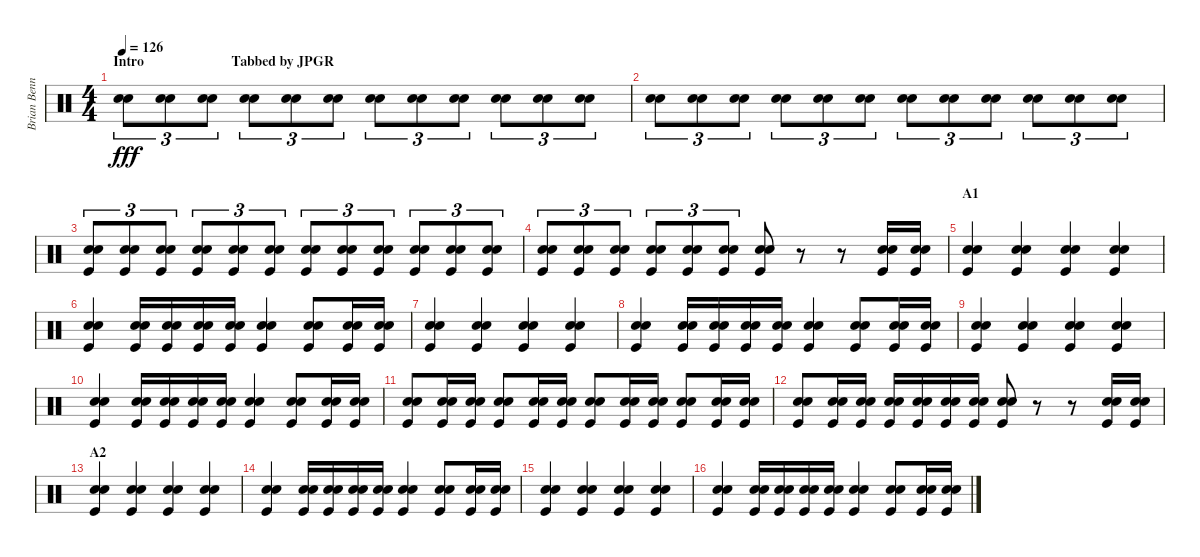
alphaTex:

\track ("Brian Bennett" "Brian Benn") {instrument percussion}
\staff {score}
\articulation defaults
\ts (4 4)
\section ("" "Intro                         Tabbed by JPGR")
\tempo 126
\clef neutral
\ks c
("Electric Snare (hit)" "Snare (hit) 2").8{tu (3 2) dy fff} ("Electric Snare (hit)" "Snare (hit) 2").8{tu (3 2)} ("Electric Snare (hit)" "Snare (hit) 2").8{tu (3 2)} ("Electric Snare (hit)" "Snare (hit) 2").8{tu (3 2)} ("Electric Snare (hit)" "Snare (hit) 2").8{tu (3 2)} ("Electric Snare (hit)" "Snare (hit) 2").8{tu (3 2)} ("Electric Snare (hit)" "Snare (hit) 2").8{tu (3 2)} ("Electric Snare (hit)" "Snare (hit) 2").8{tu (3 2)} ("Electric Snare (hit)" "Snare (hit) 2").8{tu (3 2)} ("Electric Snare (hit)" "Snare (hit) 2").8{tu (3 2)} ("Electric Snare (hit)" "Snare (hit) 2").8{tu (3 2)} ("Electric Snare (hit)" "Snare (hit) 2").8{tu (3 2)} |
("Electric Snare (hit)" "Snare (hit) 2").8{tu (3 2)} ("Electric Snare (hit)" "Snare (hit) 2").8{tu (3 2)} ("Electric Snare (hit)" "Snare (hit) 2").8{tu (3 2)} ("Electric Snare (hit)" "Snare (hit) 2").8{tu (3 2)} ("Electric Snare (hit)" "Snare (hit) 2").8{tu (3 2)} ("Electric Snare (hit)" "Snare (hit) 2").8{tu (3 2)} ("Electric Snare (hit)" "Snare (hit) 2").8{tu (3 2)} ("Electric Snare (hit)" "Snare (hit) 2").8{tu (3 2)} ("Electric Snare (hit)" "Snare (hit) 2").8{tu (3 2)} ("Electric Snare (hit)" "Snare (hit) 2").8{tu (3 2)} ("Electric Snare (hit)" "Snare (hit) 2").8{tu (3 2)} ("Electric Snare (hit)" "Snare (hit) 2").8{tu (3 2)} |
("Electric Snare (hit)" "Snare (hit) 2" "Kick (hit)").8{tu (3 2)} ("Electric Snare (hit)" "Snare (hit) 2" "Kick (hit)").8{tu (3 2)} ("Electric Snare (hit)" "Snare (hit) 2" "Kick (hit)").8{tu (3 2)} ("Electric Snare (hit)" "Snare (hit) 2" "Kick (hit)").8{tu (3 2)} ("Electric Snare (hit)" "Snare (hit) 2" "Kick (hit)").8{tu (3 2)} ("Electric Snare (hit)" "Snare (hit) 2" "Kick (hit)").8{tu (3 2)} ("Electric Snare (hit)" "Snare (hit) 2" "Kick (hit)").8{tu (3 2)} ("Electric Snare (hit)" "Snare (hit) 2" "Kick (hit)").8{tu (3 2)} ("Electric Snare (hit)" "Snare (hit) 2" "Kick (hit)").8{tu (3 2)} ("Electric Snare (hit)" "Snare (hit) 2" "Kick (hit)").8{tu (3 2)} ("Electric Snare (hit)" "Snare (hit) 2" "Kick (hit)").8{tu (3 2)} ("Electric Snare (hit)" "Snare (hit) 2" "Kick (hit)").8{tu (3 2)} |
("Electric Snare (hit)" "Snare (hit) 2" "Kick (hit)").8{tu (3 2)} ("Electric Snare (hit)" "Snare (hit) 2" "Kick (hit)").8{tu (3 2)} ("Electric Snare (hit)" "Snare (hit) 2" "Kick (hit)").8{tu (3 2)} ("Electric Snare (hit)" "Snare (hit) 2" "Kick (hit)").8{tu (3 2)} ("Electric Snare (hit)" "Snare (hit) 2" "Kick (hit)").8{tu (3 2)} ("Electric Snare (hit)" "Snare (hit) 2" "Kick (hit)").8{tu (3 2)} ("Electric Snare (hit)" "Snare (hit) 2" "Kick (hit)").8 r.8 r.8 ("Electric Snare (hit)" "Snare (hit) 2" "Kick (hit)").16 ("Electric Snare (hit)" "Snare (hit) 2" "Kick (hit)").16 |
\section ("" "A1")
("Electric Snare (hit)" "Snare (hit) 2" "Kick (hit)").4 ("Electric Snare (hit)" "Snare (hit) 2" "Kick (hit)").4 ("Electric Snare (hit)" "Snare (hit) 2" "Kick (hit)").4 ("Electric Snare (hit)" "Snare (hit) 2" "Kick (hit)").4 |
("Electric Snare (hit)" "Snare (hit) 2" "Kick (hit)").4 ("Electric Snare (hit)" "Snare (hit) 2" "Kick (hit)").16 ("Electric Snare (hit)" "Snare (hit) 2" "Kick (hit)").16 ("Electric Snare (hit)" "Snare (hit) 2" "Kick (hit)").16 ("Electric Snare (hit)" "Snare (hit) 2" "Kick (hit)").16 ("Electric Snare (hit)" "Snare (hit) 2" "Kick (hit)").4 ("Electric Snare (hit)" "Snare (hit) 2" "Kick (hit)").8 ("Electric Snare (hit)" "Snare (hit) 2" "Kick (hit)").16 ("Electric Snare (hit)" "Snare (hit) 2" "Kick (hit)").16 |
("Electric Snare (hit)" "Snare (hit) 2" "Kick (hit)").4 ("Electric Snare (hit)" "Snare (hit) 2" "Kick (hit)").4 ("Electric Snare (hit)" "Snare (hit) 2" "Kick (hit)").4 ("Electric Snare (hit)" "Snare (hit) 2" "Kick (hit)").4 |
("Electric Snare (hit)" "Snare (hit) 2" "Kick (hit)").4 ("Electric Snare (hit)" "Snare (hit) 2" "Kick (hit)").16 ("Electric Snare (hit)" "Snare (hit) 2" "Kick (hit)").16 ("Electric Snare (hit)" "Snare (hit) 2" "Kick (hit)").16 ("Electric Snare (hit)" "Snare (hit) 2" "Kick (hit)").16 ("Electric Snare (hit)" "Snare (hit) 2" "Kick (hit)").4 ("Electric Snare (hit)" "Snare (hit) 2" "Kick (hit)").8 ("Electric Snare (hit)" "Snare (hit) 2" "Kick (hit)").16 ("Electric Snare (hit)" "Snare (hit) 2" "Kick (hit)").16 |
("Electric Snare (hit)" "Snare (hit) 2" "Kick (hit)").4 ("Electric Snare (hit)" "Snare (hit) 2" "Kick (hit)").4 ("Electric Snare (hit)" "Snare (hit) 2" "Kick (hit)").4 ("Electric Snare (hit)" "Snare (hit) 2" "Kick (hit)").4 |
("Electric Snare (hit)" "Snare (hit) 2" "Kick (hit)").4 ("Electric Snare (hit)" "Snare (hit) 2" "Kick (hit)").16 ("Electric Snare (hit)" "Snare (hit) 2" "Kick (hit)").16 ("Electric Snare (hit)" "Snare (hit) 2" "Kick (hit)").16 ("Electric Snare (hit)" "Snare (hit) 2" "Kick (hit)").16 ("Electric Snare (hit)" "Snare (hit) 2" "Kick (hit)").4 ("Electric Snare (hit)" "Snare (hit) 2" "Kick (hit)").8 ("Electric Snare (hit)" "Snare (hit) 2" "Kick (hit)").16 ("Electric Snare (hit)" "Snare (hit) 2" "Kick (hit)").16 |
("Electric Snare (hit)" "Snare (hit) 2" "Kick (hit)").8 ("Electric Snare (hit)" "Snare (hit) 2" "Kick (hit)").16 ("Electric Snare (hit)" "Snare (hit) 2" "Kick (hit)").16 ("Electric Snare (hit)" "Snare (hit) 2" "Kick (hit)").8 ("Electric Snare (hit)" "Snare (hit) 2" "Kick (hit)").16 ("Electric Snare (hit)" "Snare (hit) 2" "Kick (hit)").16 ("Electric Snare (hit)" "Snare (hit) 2" "Kick (hit)").8 ("Electric Snare (hit)" "Snare (hit) 2" "Kick (hit)").16 ("Electric Snare (hit)" "Snare (hit) 2" "Kick (hit)").16 ("Electric Snare (hit)" "Snare (hit) 2" "Kick (hit)").8 ("Electric Snare (hit)" "Snare (hit) 2" "Kick (hit)").16 ("Electric Snare (hit)" "Snare (hit) 2" "Kick (hit)").16 |
("Electric Snare (hit)" "Snare (hit) 2" "Kick (hit)").8 ("Electric Snare (hit)" "Snare (hit) 2" "Kick (hit)").16 ("Electric Snare (hit)" "Snare (hit) 2" "Kick (hit)").16 ("Electric Snare (hit)" "Snare (hit) 2" "Kick (hit)").16 ("Electric Snare (hit)" "Snare (hit) 2" "Kick (hit)").16 ("Electric Snare (hit)" "Snare (hit) 2" "Kick (hit)").16 ("Electric Snare (hit)" "Snare (hit) 2" "Kick (hit)").16 ("Electric Snare (hit)" "Snare (hit) 2" "Kick (hit)").8 r.8 r.8 ("Electric Snare (hit)" "Snare (hit) 2" "Kick (hit)").16 ("Electric Snare (hit)" "Snare (hit) 2" "Kick (hit)").16 |
\section ("" "A2")
("Electric Snare (hit)" "Snare (hit) 2" "Kick (hit)").4 ("Electric Snare (hit)" "Snare (hit) 2" "Kick (hit)").4 ("Electric Snare (hit)" "Snare (hit) 2" "Kick (hit)").4 ("Electric Snare (hit)" "Snare (hit) 2" "Kick (hit)").4 |
("Electric Snare (hit)" "Snare (hit) 2" "Kick (hit)").4 ("Electric Snare (hit)" "Snare (hit) 2" "Kick (hit)").16 ("Electric Snare (hit)" "Snare (hit) 2" "Kick (hit)").16 ("Electric Snare (hit)" "Snare (hit) 2" "Kick (hit)").16 ("Electric Snare (hit)" "Snare (hit) 2" "Kick (hit)").16 ("Electric Snare (hit)" "Snare (hit) 2" "Kick (hit)").4 ("Electric Snare (hit)" "Snare (hit) 2" "Kick (hit)").8 ("Electric Snare (hit)" "Snare (hit) 2" "Kick (hit)").16 ("Electric Snare (hit)" "Snare (hit) 2" "Kick (hit)").16 |
("Electric Snare (hit)" "Snare (hit) 2" "Kick (hit)").4 ("Electric Snare (hit)" "Snare (hit) 2" "Kick (hit)").4 ("Electric Snare (hit)" "Snare (hit) 2" "Kick (hit)").4 ("Electric Snare (hit)" "Snare (hit) 2" "Kick (hit)").4 |
("Electric Snare (hit)" "Snare (hit) 2" "Kick (hit)").4 ("Electric Snare (hit)" "Snare (hit) 2" "Kick (hit)").16 ("Electric Snare (hit)" "Snare (hit) 2" "Kick (hit)").16 ("Electric Snare (hit)" "Snare (hit) 2" "Kick (hit)").16 ("Electric Snare (hit)" "Snare (hit) 2" "Kick (hit)").16 ("Electric Snare (hit)" "Snare (hit) 2" "Kick (hit)").4 ("Electric Snare (hit)" "Snare (hit) 2" "Kick (hit)").8 ("Electric Snare (hit)" "Snare (hit) 2" "Kick (hit)").16 ("Electric Snare (hit)" "Snare (hit) 2" "Kick (hit)").16
